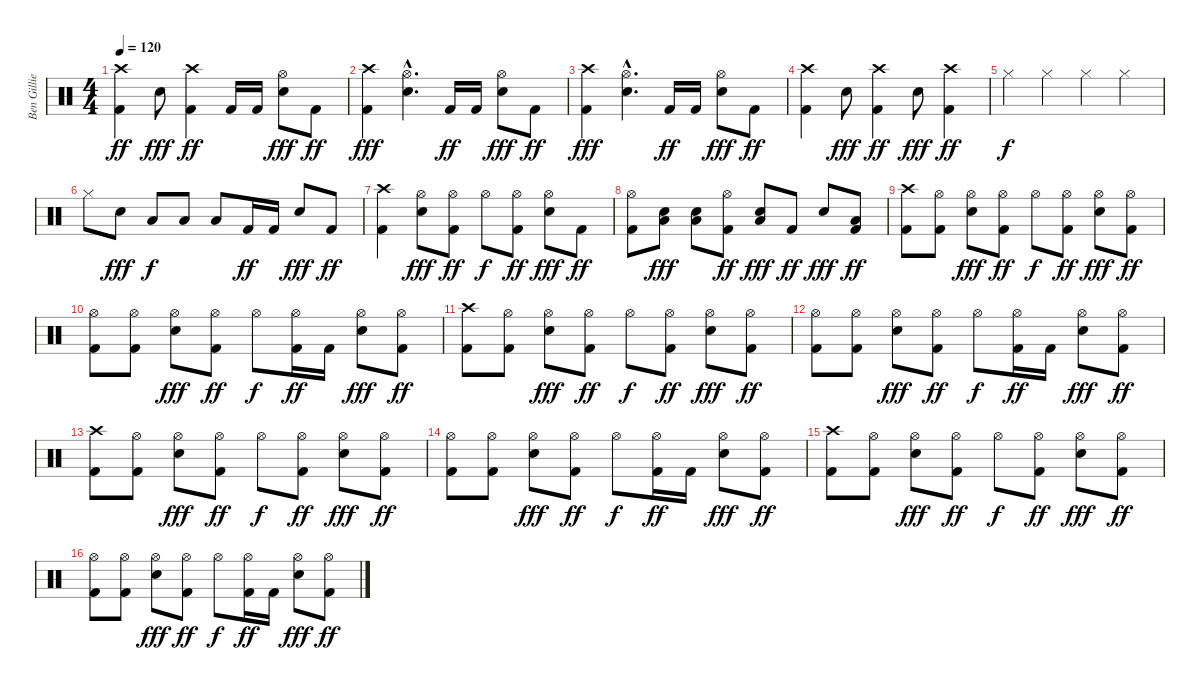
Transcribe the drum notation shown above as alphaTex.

\track ("Ben Gillies" "Ben Gillie") {instrument percussion}
\staff {score}
\articulation defaults
\ts (4 4)
\tempo 120
\clef neutral
\ks c
("Crash high (hit)" "Kick (hit) 2").4{dy ff} "Electric Snare (hit)".8{dy fff} ("Crash high (hit)" "Kick (hit) 2").4{dy ff} "Kick (hit) 2".16 "Kick (hit) 2".16 ("Hi-Hat (open)" "Electric Snare (hit)").8{dy fff} "Kick (hit) 2".8{dy ff} |
("Crash high (hit)" "Kick (hit) 2").4{dy fff} ("Hi-Hat (open)"{hac} "Electric Snare (hit)"{hac}).4{d} "Kick (hit) 2".16{dy ff} "Kick (hit) 2".16 ("Hi-Hat (open)" "Electric Snare (hit)").8{dy fff} "Kick (hit) 2".8{dy ff} |
("Crash high (hit)" "Kick (hit) 2").4{dy fff} ("Hi-Hat (open)"{hac} "Electric Snare (hit)"{hac}).4{d} "Kick (hit) 2".16{dy ff} "Kick (hit) 2".16 ("Hi-Hat (open)" "Electric Snare (hit)").8{dy fff} "Kick (hit) 2".8{dy ff} |
("Crash high (hit)" "Kick (hit) 2").4 "Electric Snare (hit)".8{dy fff} ("Crash high (hit)" "Kick (hit) 2").4{dy ff} "Electric Snare (hit)".8{dy fff} ("Crash high (hit)" "Kick (hit) 2").4{dy ff} |
"Hi-Hat (closed)".4{dy f} "Hi-Hat (closed)".4 "Hi-Hat (closed)".4 "Hi-Hat (closed)".4 |
"Hi-Hat (closed)".8 "Electric Snare (hit)".8{dy fff} "Low Tom (hit)".8{dy f} "Low Tom (hit)".8 "Low Floor Tom (hit)".8 "Kick (hit) 2".16{dy ff} "Kick (hit) 2".16 "Electric Snare (hit)".8{dy fff} "Kick (hit) 2".8{dy ff} |
("Crash high (hit)" "Kick (hit) 2").4 ("Hi-Hat (open)" "Electric Snare (hit)").8{dy fff} ("Hi-Hat (open)" "Kick (hit) 2").8{dy ff} "Hi-Hat (open)".8{dy f} ("Hi-Hat (open)" "Kick (hit) 2").8{dy ff} ("Hi-Hat (open)" "Electric Snare (hit)").8{dy fff} "Kick (hit) 2".8{dy ff} |
("Hi-Hat (open)" "Kick (hit) 2").8 ("Low Floor Tom (hit)" "Electric Snare (hit)").8{dy fff} ("Low Floor Tom (hit)" "Electric Snare (hit)").8 ("Hi-Hat (open)" "Kick (hit) 2").8{dy ff} ("Low Floor Tom (hit)" "Electric Snare (hit)").8{dy fff} "Kick (hit) 2".8{dy ff} "Electric Snare (hit)".8{dy fff} ("Low Floor Tom (hit)" "Kick (hit) 2").8{dy ff} |
("Crash high (hit)" "Kick (hit) 2").8 ("Hi-Hat (open)" "Kick (hit) 2").8 ("Hi-Hat (open)" "Electric Snare (hit)").8{dy fff} ("Hi-Hat (open)" "Kick (hit) 2").8{dy ff} "Hi-Hat (open)".8{dy f} ("Hi-Hat (open)" "Kick (hit) 2").8{dy ff} ("Hi-Hat (open)" "Electric Snare (hit)").8{dy fff} ("Hi-Hat (open)" "Kick (hit) 2").8{dy ff} |
("Hi-Hat (open)" "Kick (hit) 2").8 ("Hi-Hat (open)" "Kick (hit) 2").8 ("Hi-Hat (open)" "Electric Snare (hit)").8{dy fff} ("Hi-Hat (open)" "Kick (hit) 2").8{dy ff} "Hi-Hat (open)".8{dy f} ("Hi-Hat (open)" "Kick (hit) 2").16{dy ff} "Kick (hit) 2".16 ("Hi-Hat (open)" "Electric Snare (hit)").8{dy fff} ("Hi-Hat (open)" "Kick (hit) 2").8{dy ff} |
("Crash high (hit)" "Kick (hit) 2").8 ("Hi-Hat (open)" "Kick (hit) 2").8 ("Hi-Hat (open)" "Electric Snare (hit)").8{dy fff} ("Hi-Hat (open)" "Kick (hit) 2").8{dy ff} "Hi-Hat (open)".8{dy f} ("Hi-Hat (open)" "Kick (hit) 2").8{dy ff} ("Hi-Hat (open)" "Electric Snare (hit)").8{dy fff} ("Hi-Hat (open)" "Kick (hit) 2").8{dy ff} |
("Hi-Hat (open)" "Kick (hit) 2").8 ("Hi-Hat (open)" "Kick (hit) 2").8 ("Hi-Hat (open)" "Electric Snare (hit)").8{dy fff} ("Hi-Hat (open)" "Kick (hit) 2").8{dy ff} "Hi-Hat (open)".8{dy f} ("Hi-Hat (open)" "Kick (hit) 2").16{dy ff} "Kick (hit) 2".16 ("Hi-Hat (open)" "Electric Snare (hit)").8{dy fff} ("Hi-Hat (open)" "Kick (hit) 2").8{dy ff} |
("Crash high (hit)" "Kick (hit) 2").8 ("Hi-Hat (open)" "Kick (hit) 2").8 ("Hi-Hat (open)" "Electric Snare (hit)").8{dy fff} ("Hi-Hat (open)" "Kick (hit) 2").8{dy ff} "Hi-Hat (open)".8{dy f} ("Hi-Hat (open)" "Kick (hit) 2").8{dy ff} ("Hi-Hat (open)" "Electric Snare (hit)").8{dy fff} ("Hi-Hat (open)" "Kick (hit) 2").8{dy ff} |
("Hi-Hat (open)" "Kick (hit) 2").8 ("Hi-Hat (open)" "Kick (hit) 2").8 ("Hi-Hat (open)" "Electric Snare (hit)").8{dy fff} ("Hi-Hat (open)" "Kick (hit) 2").8{dy ff} "Hi-Hat (open)".8{dy f} ("Hi-Hat (open)" "Kick (hit) 2").16{dy ff} "Kick (hit) 2".16 ("Hi-Hat (open)" "Electric Snare (hit)").8{dy fff} ("Hi-Hat (open)" "Kick (hit) 2").8{dy ff} |
("Crash high (hit)" "Kick (hit) 2").8 ("Hi-Hat (open)" "Kick (hit) 2").8 ("Hi-Hat (open)" "Electric Snare (hit)").8{dy fff} ("Hi-Hat (open)" "Kick (hit) 2").8{dy ff} "Hi-Hat (open)".8{dy f} ("Hi-Hat (open)" "Kick (hit) 2").8{dy ff} ("Hi-Hat (open)" "Electric Snare (hit)").8{dy fff} ("Hi-Hat (open)" "Kick (hit) 2").8{dy ff} |
("Hi-Hat (open)" "Kick (hit) 2").8 ("Hi-Hat (open)" "Kick (hit) 2").8 ("Hi-Hat (open)" "Electric Snare (hit)").8{dy fff} ("Hi-Hat (open)" "Kick (hit) 2").8{dy ff} "Hi-Hat (open)".8{dy f} ("Hi-Hat (open)" "Kick (hit) 2").16{dy ff} "Kick (hit) 2".16 ("Hi-Hat (open)" "Electric Snare (hit)").8{dy fff} ("Hi-Hat (open)" "Kick (hit) 2").8{dy ff}
